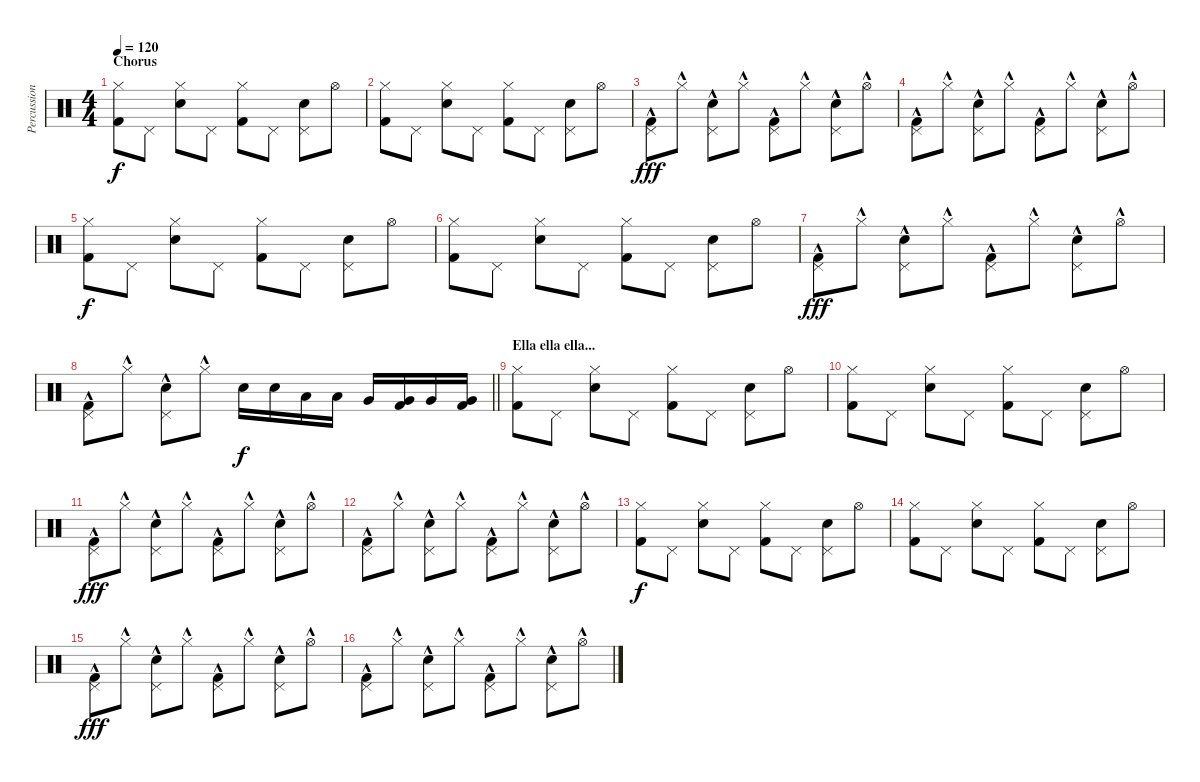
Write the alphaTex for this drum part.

\track ("Percussion" "Percussion") {instrument percussion}
\staff {score}
\articulation defaults
\ts (4 4)
\section ("" "Chorus")
\tempo 120
\clef neutral
\ks c
("Hi-Hat (closed)" "Kick (hit) 2").8{dy f} "Pedal Hi-Hat (hit)".8 ("Hi-Hat (closed)" "Electric Snare (hit)").8 "Pedal Hi-Hat (hit)".8 ("Hi-Hat (closed)" "Kick (hit) 2").8 "Pedal Hi-Hat (hit)".8 ("Pedal Hi-Hat (hit)" "Electric Snare (hit)").8 "Hi-Hat (open)".8 |
("Hi-Hat (closed)" "Kick (hit) 2").8 "Pedal Hi-Hat (hit)".8 ("Hi-Hat (closed)" "Electric Snare (hit)").8 "Pedal Hi-Hat (hit)".8 ("Hi-Hat (closed)" "Kick (hit) 2").8 "Pedal Hi-Hat (hit)".8 ("Pedal Hi-Hat (hit)" "Electric Snare (hit)").8 "Hi-Hat (open)".8 |
("Pedal Hi-Hat (hit)" "Kick (hit) 2"{hac}).8{dy fff} "Hi-Hat (closed)"{hac}.8 ("Pedal Hi-Hat (hit)" "Electric Snare (hit)"{hac}).8 "Hi-Hat (closed)"{hac}.8 ("Pedal Hi-Hat (hit)" "Kick (hit) 2"{hac}).8 "Hi-Hat (closed)"{hac}.8 ("Pedal Hi-Hat (hit)" "Electric Snare (hit)"{hac}).8 "Hi-Hat (open)"{hac}.8 |
("Pedal Hi-Hat (hit)" "Kick (hit) 2"{hac}).8 "Hi-Hat (closed)"{hac}.8 ("Pedal Hi-Hat (hit)" "Electric Snare (hit)"{hac}).8 "Hi-Hat (closed)"{hac}.8 ("Pedal Hi-Hat (hit)" "Kick (hit) 2"{hac}).8 "Hi-Hat (closed)"{hac}.8 ("Pedal Hi-Hat (hit)" "Electric Snare (hit)"{hac}).8 "Hi-Hat (open)"{hac}.8 |
("Hi-Hat (closed)" "Kick (hit) 2").8{dy f} "Pedal Hi-Hat (hit)".8 ("Hi-Hat (closed)" "Electric Snare (hit)").8 "Pedal Hi-Hat (hit)".8 ("Hi-Hat (closed)" "Kick (hit) 2").8 "Pedal Hi-Hat (hit)".8 ("Pedal Hi-Hat (hit)" "Electric Snare (hit)").8 "Hi-Hat (open)".8 |
("Hi-Hat (closed)" "Kick (hit) 2").8 "Pedal Hi-Hat (hit)".8 ("Hi-Hat (closed)" "Electric Snare (hit)").8 "Pedal Hi-Hat (hit)".8 ("Hi-Hat (closed)" "Kick (hit) 2").8 "Pedal Hi-Hat (hit)".8 ("Pedal Hi-Hat (hit)" "Electric Snare (hit)").8 "Hi-Hat (open)".8 |
("Pedal Hi-Hat (hit)" "Kick (hit) 2"{hac}).8{dy fff} "Hi-Hat (closed)"{hac}.8 ("Pedal Hi-Hat (hit)" "Electric Snare (hit)"{hac}).8 "Hi-Hat (closed)"{hac}.8 ("Pedal Hi-Hat (hit)" "Kick (hit) 2"{hac}).8 "Hi-Hat (closed)"{hac}.8 ("Pedal Hi-Hat (hit)" "Electric Snare (hit)"{hac}).8 "Hi-Hat (open)"{hac}.8 |
\barLineRight lightlight
("Pedal Hi-Hat (hit)" "Kick (hit) 2"{hac}).8 "Hi-Hat (closed)"{hac}.8 ("Pedal Hi-Hat (hit)" "Electric Snare (hit)"{hac}).8 "Hi-Hat (closed)"{hac}.8 "Electric Snare (hit)".16{dy f} "Electric Snare (hit)".16 "Low Tom (hit)".16 "Low Tom (hit)".16 "Very Low Tom (hit)".16 ("Very Low Tom (hit)" "Kick (hit) 2").16 "Very Low Tom (hit)".16 ("Very Low Tom (hit)" "Kick (hit) 2").16 |
\section ("" "Ella ella ella...")
("Hi-Hat (closed)" "Kick (hit) 2").8 "Pedal Hi-Hat (hit)".8 ("Hi-Hat (closed)" "Electric Snare (hit)").8 "Pedal Hi-Hat (hit)".8 ("Hi-Hat (closed)" "Kick (hit) 2").8 "Pedal Hi-Hat (hit)".8 ("Pedal Hi-Hat (hit)" "Electric Snare (hit)").8 "Hi-Hat (open)".8 |
("Hi-Hat (closed)" "Kick (hit) 2").8 "Pedal Hi-Hat (hit)".8 ("Hi-Hat (closed)" "Electric Snare (hit)").8 "Pedal Hi-Hat (hit)".8 ("Hi-Hat (closed)" "Kick (hit) 2").8 "Pedal Hi-Hat (hit)".8 ("Pedal Hi-Hat (hit)" "Electric Snare (hit)").8 "Hi-Hat (open)".8 |
("Pedal Hi-Hat (hit)" "Kick (hit) 2"{hac}).8{dy fff} "Hi-Hat (closed)"{hac}.8 ("Pedal Hi-Hat (hit)" "Electric Snare (hit)"{hac}).8 "Hi-Hat (closed)"{hac}.8 ("Pedal Hi-Hat (hit)" "Kick (hit) 2"{hac}).8 "Hi-Hat (closed)"{hac}.8 ("Pedal Hi-Hat (hit)" "Electric Snare (hit)"{hac}).8 "Hi-Hat (open)"{hac}.8 |
("Pedal Hi-Hat (hit)" "Kick (hit) 2"{hac}).8 "Hi-Hat (closed)"{hac}.8 ("Pedal Hi-Hat (hit)" "Electric Snare (hit)"{hac}).8 "Hi-Hat (closed)"{hac}.8 ("Pedal Hi-Hat (hit)" "Kick (hit) 2"{hac}).8 "Hi-Hat (closed)"{hac}.8 ("Pedal Hi-Hat (hit)" "Electric Snare (hit)"{hac}).8 "Hi-Hat (open)"{hac}.8 |
("Hi-Hat (closed)" "Kick (hit) 2").8{dy f} "Pedal Hi-Hat (hit)".8 ("Hi-Hat (closed)" "Electric Snare (hit)").8 "Pedal Hi-Hat (hit)".8 ("Hi-Hat (closed)" "Kick (hit) 2").8 "Pedal Hi-Hat (hit)".8 ("Pedal Hi-Hat (hit)" "Electric Snare (hit)").8 "Hi-Hat (open)".8 |
("Hi-Hat (closed)" "Kick (hit) 2").8 "Pedal Hi-Hat (hit)".8 ("Hi-Hat (closed)" "Electric Snare (hit)").8 "Pedal Hi-Hat (hit)".8 ("Hi-Hat (closed)" "Kick (hit) 2").8 "Pedal Hi-Hat (hit)".8 ("Pedal Hi-Hat (hit)" "Electric Snare (hit)").8 "Hi-Hat (open)".8 |
("Pedal Hi-Hat (hit)" "Kick (hit) 2"{hac}).8{dy fff} "Hi-Hat (closed)"{hac}.8 ("Pedal Hi-Hat (hit)" "Electric Snare (hit)"{hac}).8 "Hi-Hat (closed)"{hac}.8 ("Pedal Hi-Hat (hit)" "Kick (hit) 2"{hac}).8 "Hi-Hat (closed)"{hac}.8 ("Pedal Hi-Hat (hit)" "Electric Snare (hit)"{hac}).8 "Hi-Hat (open)"{hac}.8 |
("Pedal Hi-Hat (hit)" "Kick (hit) 2"{hac}).8 "Hi-Hat (closed)"{hac}.8 ("Pedal Hi-Hat (hit)" "Electric Snare (hit)"{hac}).8 "Hi-Hat (closed)"{hac}.8 ("Pedal Hi-Hat (hit)" "Kick (hit) 2"{hac}).8 "Hi-Hat (closed)"{hac}.8 ("Pedal Hi-Hat (hit)" "Electric Snare (hit)"{hac}).8 "Hi-Hat (open)"{hac}.8
